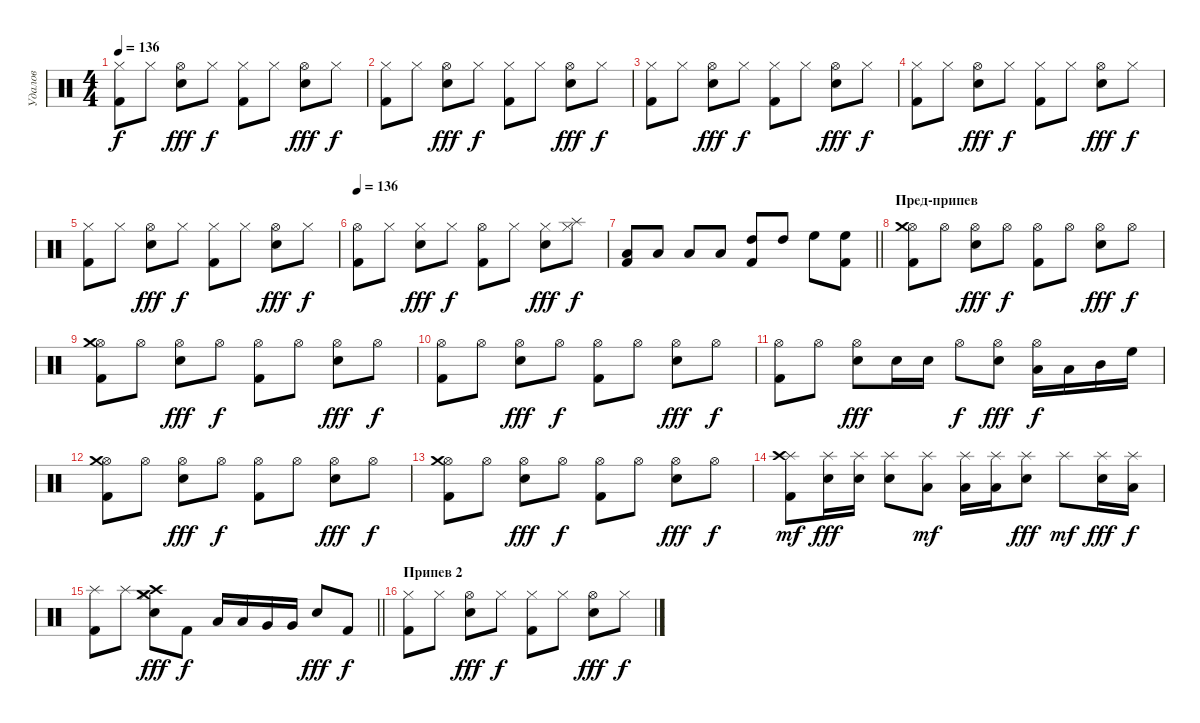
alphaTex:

\track ("Удалов" "Удалов") {instrument percussion}
\staff {score}
\articulation defaults
\ts (4 4)
\tempo 136
\clef neutral
\ks c
("Hi-Hat (closed)" "Kick (hit) 2").8{dy f} "Hi-Hat (closed)".8 ("Hi-Hat (open)" "Snare (hit) 2").8{dy fff} "Hi-Hat (closed)".8{dy f} ("Hi-Hat (closed)" "Kick (hit) 2").8 "Hi-Hat (closed)".8 ("Hi-Hat (open)" "Snare (hit) 2").8{dy fff} "Hi-Hat (closed)".8{dy f} |
("Hi-Hat (closed)" "Kick (hit) 2").8 "Hi-Hat (closed)".8 ("Hi-Hat (open)" "Snare (hit) 2").8{dy fff} "Hi-Hat (closed)".8{dy f} ("Hi-Hat (closed)" "Kick (hit) 2").8 "Hi-Hat (closed)".8 ("Hi-Hat (open)" "Snare (hit) 2").8{dy fff} "Hi-Hat (closed)".8{dy f} |
("Hi-Hat (closed)" "Kick (hit) 2").8 "Hi-Hat (closed)".8 ("Hi-Hat (open)" "Snare (hit) 2").8{dy fff} "Hi-Hat (closed)".8{dy f} ("Hi-Hat (closed)" "Kick (hit) 2").8 "Hi-Hat (closed)".8 ("Hi-Hat (open)" "Snare (hit) 2").8{dy fff} "Hi-Hat (closed)".8{dy f} |
("Hi-Hat (closed)" "Kick (hit) 2").8 "Hi-Hat (closed)".8 ("Hi-Hat (open)" "Snare (hit) 2").8{dy fff} "Hi-Hat (closed)".8{dy f} ("Hi-Hat (closed)" "Kick (hit) 2").8 "Hi-Hat (closed)".8 ("Hi-Hat (open)" "Snare (hit) 2").8{dy fff} "Hi-Hat (closed)".8{dy f} |
("Hi-Hat (closed)" "Kick (hit) 2").8 "Hi-Hat (closed)".8 ("Hi-Hat (open)" "Snare (hit) 2").8{dy fff} "Hi-Hat (closed)".8{dy f} ("Hi-Hat (closed)" "Kick (hit) 2").8 "Hi-Hat (closed)".8 ("Hi-Hat (open)" "Snare (hit) 2").8{dy fff} "Hi-Hat (closed)".8{dy f} |
\tempo 136
("Hi-Hat (open)" "Kick (hit) 2").8 "Hi-Hat (closed)".8 ("Hi-Hat (closed)" "Snare (hit) 2").8{dy fff} "Hi-Hat (closed)".8{dy f} ("Hi-Hat (open)" "Kick (hit) 2").8 "Hi-Hat (closed)".8 ("Hi-Hat (closed)" "Snare (hit) 2").8{dy fff} ("Hi-Hat (closed)" "Splash (hit)").8{dy f} |
\barLineRight lightlight
("Kick (hit) 2" "Low Floor Tom (hit)").8 "Low Floor Tom (hit)".8 "Low Tom (hit)".8 "Low Tom (hit)".8 ("High Tom (hit)" "Kick (hit) 2").8 "High Tom (hit)".8 "High Floor Tom (hit)".8 ("High Floor Tom (hit)" "Kick (hit) 2").8 |
\section ("" "Пред-припев")
("Hi-Hat (open)" "Kick (hit) 2" "Crash medium (hit)").8 "Hi-Hat (open)".8 ("Hi-Hat (open)" "Snare (hit) 2").8{dy fff} "Hi-Hat (open)".8{dy f} ("Hi-Hat (open)" "Kick (hit) 2").8 "Hi-Hat (open)".8 ("Hi-Hat (open)" "Snare (hit) 2").8{dy fff} "Hi-Hat (open)".8{dy f} |
("Hi-Hat (open)" "Kick (hit) 2" "Crash medium (hit)").8 "Hi-Hat (open)".8 ("Hi-Hat (open)" "Snare (hit) 2").8{dy fff} "Hi-Hat (open)".8{dy f} ("Hi-Hat (open)" "Kick (hit) 2").8 "Hi-Hat (open)".8 ("Hi-Hat (open)" "Snare (hit) 2").8{dy fff} "Hi-Hat (open)".8{dy f} |
("Hi-Hat (open)" "Kick (hit) 2").8 "Hi-Hat (open)".8 ("Hi-Hat (open)" "Snare (hit) 2").8{dy fff} "Hi-Hat (open)".8{dy f} ("Hi-Hat (open)" "Kick (hit) 2").8 "Hi-Hat (open)".8 ("Hi-Hat (open)" "Snare (hit) 2").8{dy fff} "Hi-Hat (open)".8{dy f} |
("Hi-Hat (open)" "Kick (hit) 2").8 "Hi-Hat (open)".8 ("Hi-Hat (open)" "Snare (hit) 2").8{dy fff} "Snare (hit) 2".16 "Snare (hit) 2".16 "Hi-Hat (open)".8{dy f} ("Hi-Hat (open)" "Snare (hit) 2").8{dy fff} ("Hi-Hat (open)" "Low Floor Tom (hit)").16{dy f} "Low Tom (hit)".16 "Mid Tom (hit)".16 "High Floor Tom (hit)".16 |
("Hi-Hat (open)" "Kick (hit) 2" "Crash medium (hit)").8 "Hi-Hat (open)".8 ("Hi-Hat (open)" "Snare (hit) 2").8{dy fff} "Hi-Hat (open)".8{dy f} ("Hi-Hat (open)" "Kick (hit) 2").8 "Hi-Hat (open)".8 ("Hi-Hat (open)" "Snare (hit) 2").8{dy fff} "Hi-Hat (open)".8{dy f} |
("Hi-Hat (open)" "Kick (hit) 2" "Crash medium (hit)").8 "Hi-Hat (open)".8 ("Hi-Hat (open)" "Snare (hit) 2").8{dy fff} "Hi-Hat (open)".8{dy f} ("Hi-Hat (open)" "Kick (hit) 2").8 "Hi-Hat (open)".8 ("Hi-Hat (open)" "Snare (hit) 2").8{dy fff} "Hi-Hat (open)".8{dy f} |
("Splash (hit)" "Crash high (hit)" "Kick (hit) 2").8{dy mf} ("Splash (hit)" "Snare (hit) 2").16{dy fff} ("Splash (hit)" "Snare (hit) 2").16 ("Splash (hit)" "Snare (hit) 2").8 ("Splash (hit)" "Low Floor Tom (hit)").8{dy mf} ("Splash (hit)" "Low Floor Tom (hit)").16 ("Splash (hit)" "Low Tom (hit)").16 ("Splash (hit)" "Snare (hit) 2").8{dy fff} "Splash (hit)".8{dy mf} ("Splash (hit)" "Snare (hit) 2").16{dy fff} ("Splash (hit)" "Low Tom (hit)").16{dy f} |
\barLineRight lightlight
("Splash (hit)" "Kick (hit) 2").8 "Splash (hit)".8 ("Hi-Hat (closed)" "Snare (hit) 2" "Crash high (hit)" "Crash medium (hit)").8{dy fff} "Kick (hit) 2".8{dy f} "Low Floor Tom (hit)".16 "Low Floor Tom (hit)".16 "Very Low Tom (hit)".16 "Very Low Tom (hit)".16 "Snare (hit) 2".8{dy fff} "Kick (hit) 2".8{dy f} |
\section ("" "Припев 2")
("Hi-Hat (closed)" "Kick (hit) 2").8 "Hi-Hat (closed)".8 ("Hi-Hat (open)" "Snare (hit) 2").8{dy fff} "Hi-Hat (closed)".8{dy f} ("Hi-Hat (closed)" "Kick (hit) 2").8 "Hi-Hat (closed)".8 ("Hi-Hat (open)" "Snare (hit) 2").8{dy fff} "Hi-Hat (closed)".8{dy f}
